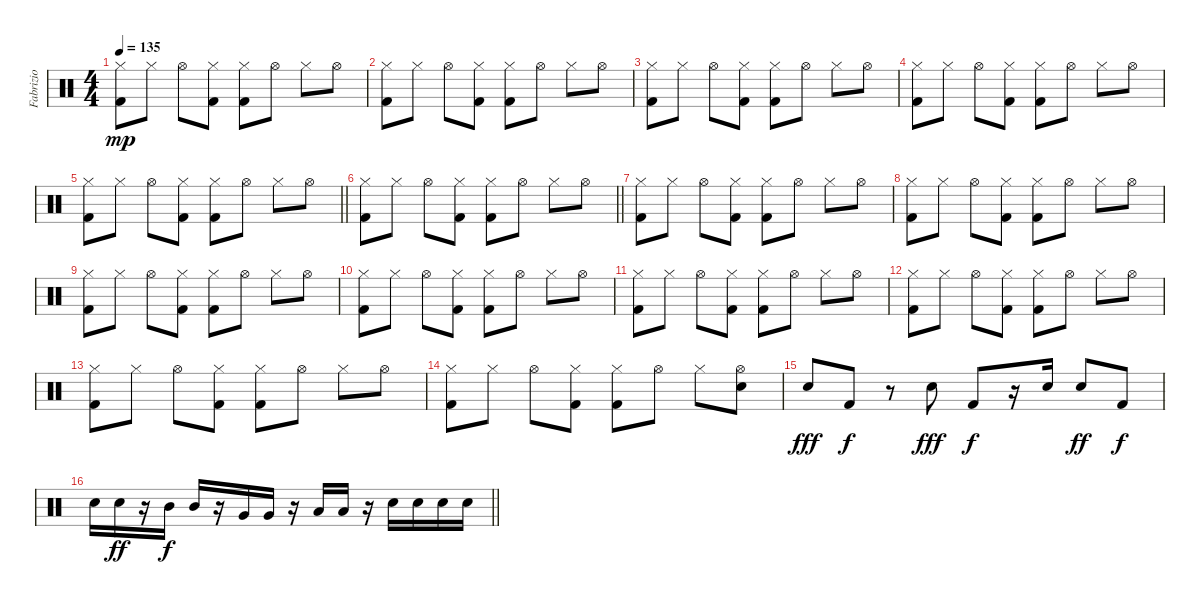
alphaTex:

\track ("Fabrizio" "Fabrizio") {instrument percussion}
\staff {score}
\articulation defaults
\ts (4 4)
\tempo 135
\clef neutral
\ks c
("Hi-Hat (closed)" "Kick (hit) 2").8{dy mp} "Hi-Hat (closed)".8 "Hi-Hat (open)".8 ("Hi-Hat (closed)" "Kick (hit) 2").8 ("Hi-Hat (closed)" "Kick (hit) 2").8 "Hi-Hat (open)".8 "Hi-Hat (closed)".8 "Hi-Hat (open)".8 |
("Hi-Hat (closed)" "Kick (hit) 2").8 "Hi-Hat (closed)".8 "Hi-Hat (open)".8 ("Hi-Hat (closed)" "Kick (hit) 2").8 ("Hi-Hat (closed)" "Kick (hit) 2").8 "Hi-Hat (open)".8 "Hi-Hat (closed)".8 "Hi-Hat (open)".8 |
("Hi-Hat (closed)" "Kick (hit) 2").8 "Hi-Hat (closed)".8 "Hi-Hat (open)".8 ("Hi-Hat (closed)" "Kick (hit) 2").8 ("Hi-Hat (closed)" "Kick (hit) 2").8 "Hi-Hat (open)".8 "Hi-Hat (closed)".8 "Hi-Hat (open)".8 |
("Hi-Hat (closed)" "Kick (hit) 2").8 "Hi-Hat (closed)".8 "Hi-Hat (open)".8 ("Hi-Hat (closed)" "Kick (hit) 2").8 ("Hi-Hat (closed)" "Kick (hit) 2").8 "Hi-Hat (open)".8 "Hi-Hat (closed)".8 "Hi-Hat (open)".8 |
\barLineRight lightlight
("Hi-Hat (closed)" "Kick (hit) 2").8 "Hi-Hat (closed)".8 "Hi-Hat (open)".8 ("Hi-Hat (closed)" "Kick (hit) 2").8 ("Hi-Hat (closed)" "Kick (hit) 2").8 "Hi-Hat (open)".8 "Hi-Hat (closed)".8 "Hi-Hat (open)".8 |
\barLineRight lightlight
("Hi-Hat (closed)" "Kick (hit) 2").8 "Hi-Hat (closed)".8 "Hi-Hat (open)".8 ("Hi-Hat (closed)" "Kick (hit) 2").8 ("Hi-Hat (closed)" "Kick (hit) 2").8 "Hi-Hat (open)".8 "Hi-Hat (closed)".8 "Hi-Hat (open)".8 |
("Hi-Hat (closed)" "Kick (hit) 2").8 "Hi-Hat (closed)".8 "Hi-Hat (open)".8 ("Hi-Hat (closed)" "Kick (hit) 2").8 ("Hi-Hat (closed)" "Kick (hit) 2").8 "Hi-Hat (open)".8 "Hi-Hat (closed)".8 "Hi-Hat (open)".8 |
("Hi-Hat (closed)" "Kick (hit) 2").8 "Hi-Hat (closed)".8 "Hi-Hat (open)".8 ("Hi-Hat (closed)" "Kick (hit) 2").8 ("Hi-Hat (closed)" "Kick (hit) 2").8 "Hi-Hat (open)".8 "Hi-Hat (closed)".8 "Hi-Hat (open)".8 |
("Hi-Hat (closed)" "Kick (hit) 2").8 "Hi-Hat (closed)".8 "Hi-Hat (open)".8 ("Hi-Hat (closed)" "Kick (hit) 2").8 ("Hi-Hat (closed)" "Kick (hit) 2").8 "Hi-Hat (open)".8 "Hi-Hat (closed)".8 "Hi-Hat (open)".8 |
("Hi-Hat (closed)" "Kick (hit) 2").8 "Hi-Hat (closed)".8 "Hi-Hat (open)".8 ("Hi-Hat (closed)" "Kick (hit) 2").8 ("Hi-Hat (closed)" "Kick (hit) 2").8 "Hi-Hat (open)".8 "Hi-Hat (closed)".8 "Hi-Hat (open)".8 |
("Hi-Hat (closed)" "Kick (hit) 2").8 "Hi-Hat (closed)".8 "Hi-Hat (open)".8 ("Hi-Hat (closed)" "Kick (hit) 2").8 ("Hi-Hat (closed)" "Kick (hit) 2").8 "Hi-Hat (open)".8 "Hi-Hat (closed)".8 "Hi-Hat (open)".8 |
("Hi-Hat (closed)" "Kick (hit) 2").8 "Hi-Hat (closed)".8 "Hi-Hat (open)".8 ("Hi-Hat (closed)" "Kick (hit) 2").8 ("Hi-Hat (closed)" "Kick (hit) 2").8 "Hi-Hat (open)".8 "Hi-Hat (closed)".8 "Hi-Hat (open)".8 |
("Hi-Hat (closed)" "Kick (hit) 2").8 "Hi-Hat (closed)".8 "Hi-Hat (open)".8 ("Hi-Hat (closed)" "Kick (hit) 2").8 ("Hi-Hat (closed)" "Kick (hit) 2").8 "Hi-Hat (open)".8 "Hi-Hat (closed)".8 "Hi-Hat (open)".8 |
("Hi-Hat (closed)" "Kick (hit) 2").8 "Hi-Hat (closed)".8 "Hi-Hat (open)".8 ("Hi-Hat (closed)" "Kick (hit) 2").8 ("Hi-Hat (closed)" "Kick (hit) 2").8 "Hi-Hat (open)".8 "Hi-Hat (closed)".8 ("Hi-Hat (open)" "Electric Snare (hit)").8 |
"Electric Snare (hit)".8{dy fff} "Kick (hit) 2".8{dy f} r.8 "Electric Snare (hit)".8{dy fff} "Kick (hit) 2".8{dy f} r.16 "Electric Snare (hit)".16 "Electric Snare (hit)".8{dy ff} "Kick (hit) 2".8{dy f} |
\barLineRight lightlight "Electric Snare (hit)".16 "Electric Snare (hit)".16{dy ff}
r.16 "Mid Tom (hit)".16{dy f} "Mid Tom (hit)".16 r.16 "Very Low Tom (hit)".16 "Very Low Tom (hit)".16 r.16 "Low Floor Tom (hit)".16 "Low Floor Tom (hit)".16 r.16 "Electric Snare (hit)".16 "Electric Snare (hit)".16 "Electric Snare (hit)".16 "Electric Snare (hit)".16
